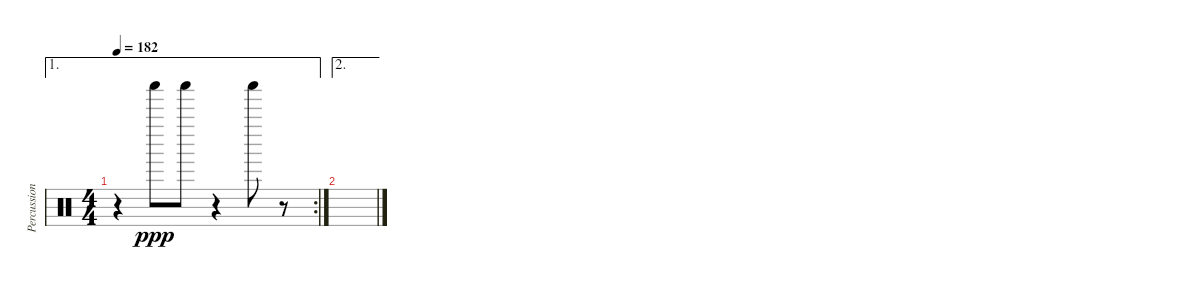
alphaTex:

\track ("Percussion2" "Percussion") {instrument percussion}
\staff {score}
\articulation defaults
\ae 1
\rc 2
\ts (4 4)
\tempo 182
\clef neutral
\ks c
r.4{dy ppp} "Shaker (hit)".8 "Shaker (hit)".8 r.4 "Shaker (hit)".8 r.8 |
\ae 2
